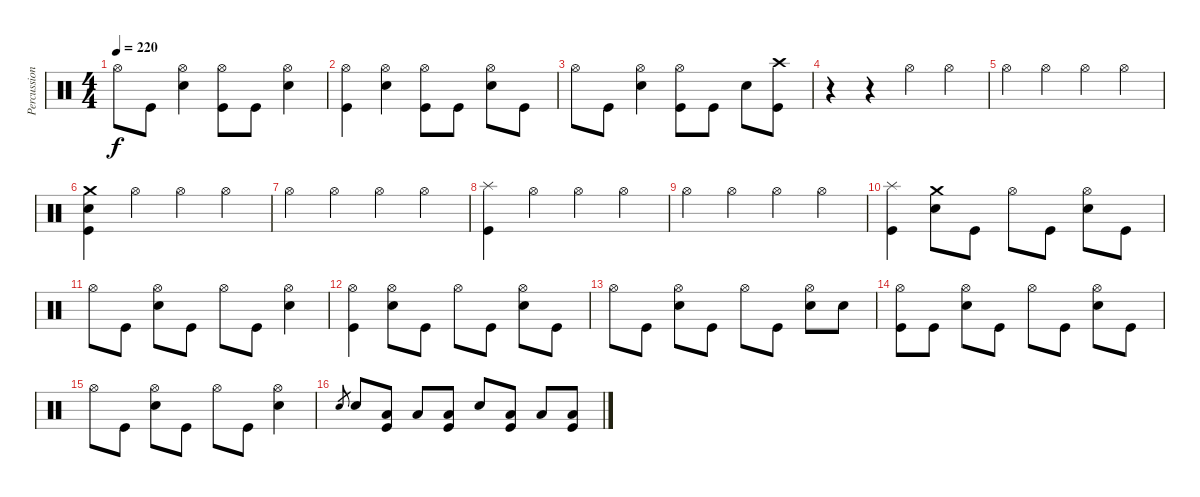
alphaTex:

\track ("Percussions" "Percussion") {instrument percussion}
\staff {score}
\articulation defaults
\ts (4 4)
\tempo 220
\clef neutral
\ks c "Hi-Hat (open)".8{dy f} "Kick (hit)".8
("Electric Snare (hit)" "Hi-Hat (open)").4 ("Kick (hit)" "Hi-Hat (open)").8 "Kick (hit)".8 ("Electric Snare (hit)" "Hi-Hat (open)").4 |
("Kick (hit)" "Hi-Hat (open)").4 ("Electric Snare (hit)" "Hi-Hat (open)").4 ("Kick (hit)" "Hi-Hat (open)").8 "Kick (hit)".8 ("Electric Snare (hit)" "Hi-Hat (open)").8 "Kick (hit)".8 |
"Hi-Hat (open)".8 "Kick (hit)".8 ("Electric Snare (hit)" "Hi-Hat (open)").4 ("Kick (hit)" "Hi-Hat (open)").8 "Kick (hit)".8 "Electric Snare (hit)".8 ("Kick (hit)" "Crash high (hit)").8 |
r.4 r.4 "Hi-Hat (open)".4 "Hi-Hat (open)".4 |
"Hi-Hat (open)".4 "Hi-Hat (open)".4 "Hi-Hat (open)".4 "Hi-Hat (open)".4 |
("Kick (hit)" "Electric Snare (hit)" "Crash medium (hit)").4 "Hi-Hat (open)".4 "Hi-Hat (open)".4 "Hi-Hat (open)".4 |
"Hi-Hat (open)".4 "Hi-Hat (open)".4 "Hi-Hat (open)".4 "Hi-Hat (open)".4 |
("Kick (hit)" "Splash (hit)").4 "Hi-Hat (open)".4 "Hi-Hat (open)".4 "Hi-Hat (open)".4 |
"Hi-Hat (open)".4 "Hi-Hat (open)".4 "Hi-Hat (open)".4 "Hi-Hat (open)".4 |
("Kick (hit)" "Splash (hit)").4 ("Electric Snare (hit)" "Crash medium (hit)").8 "Kick (hit)".8 "Hi-Hat (open)".8 "Kick (hit)".8 ("Electric Snare (hit)" "Hi-Hat (open)").8 "Kick (hit)".8 |
"Hi-Hat (open)".8 "Kick (hit)".8 ("Electric Snare (hit)" "Hi-Hat (open)").8 "Kick (hit)".8 "Hi-Hat (open)".8 "Kick (hit)".8 ("Electric Snare (hit)" "Hi-Hat (open)").4 |
("Kick (hit)" "Hi-Hat (open)").4 ("Electric Snare (hit)" "Hi-Hat (open)").8 "Kick (hit)".8 "Hi-Hat (open)".8 "Kick (hit)".8 ("Electric Snare (hit)" "Hi-Hat (open)").8 "Kick (hit)".8 |
"Hi-Hat (open)".8 "Kick (hit)".8 ("Electric Snare (hit)" "Hi-Hat (open)").8 "Kick (hit)".8 "Hi-Hat (open)".8 "Kick (hit)".8 ("Electric Snare (hit)" "Hi-Hat (open)").8 "Electric Snare (hit)".8 |
("Kick (hit)" "Hi-Hat (open)").8 "Kick (hit)".8 ("Electric Snare (hit)" "Hi-Hat (open)").8 "Kick (hit)".8 "Hi-Hat (open)".8 "Kick (hit)".8 ("Electric Snare (hit)" "Hi-Hat (open)").8 "Kick (hit)".8 |
"Hi-Hat (open)".8 "Kick (hit)".8 ("Electric Snare (hit)" "Hi-Hat (open)").8 "Kick (hit)".8 "Hi-Hat (open)".8 "Kick (hit)".8 ("Electric Snare (hit)" "Hi-Hat (open)").4 |
"Electric Snare (hit)".8{gr} "Electric Snare (hit)".8 ("Kick (hit)" "Low Tom (hit)").8 "Low Tom (hit)".8 ("Kick (hit)" "Low Tom (hit)").8 "Electric Snare (hit)".8 ("Kick (hit)" "Low Tom (hit)").8 "Low Tom (hit)".8 ("Kick (hit)" "Low Tom (hit)").8
